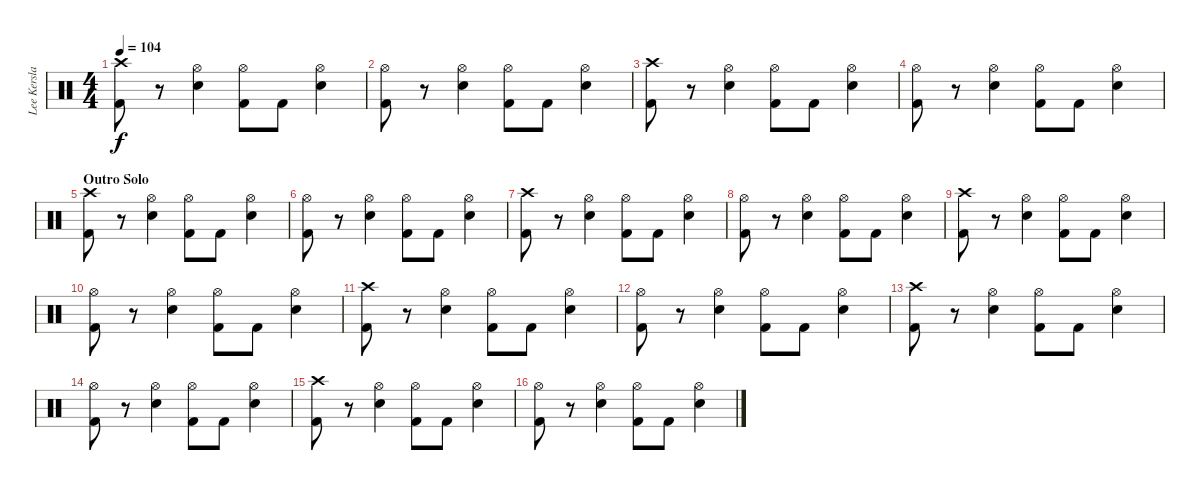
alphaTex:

\track ("Lee Kerslake" "Lee Kersla") {instrument percussion}
\staff {score}
\articulation defaults
\ts (4 4)
\tempo 104
\clef neutral
\ks c
("Crash high (hit)" "Kick (hit) 2").8{dy f} r.8 ("Hi-Hat (open)" "Electric Snare (hit)").4 ("Hi-Hat (open)" "Kick (hit) 2").8 "Kick (hit) 2".8 ("Hi-Hat (open)" "Electric Snare (hit)").4 |
("Hi-Hat (open)" "Kick (hit) 2").8 r.8 ("Hi-Hat (open)" "Electric Snare (hit)").4 ("Hi-Hat (open)" "Kick (hit) 2").8 "Kick (hit) 2".8 ("Hi-Hat (open)" "Electric Snare (hit)").4 |
("Crash high (hit)" "Kick (hit) 2").8 r.8 ("Hi-Hat (open)" "Electric Snare (hit)").4 ("Hi-Hat (open)" "Kick (hit) 2").8 "Kick (hit) 2".8 ("Hi-Hat (open)" "Electric Snare (hit)").4 |
("Hi-Hat (open)" "Kick (hit) 2").8 r.8 ("Hi-Hat (open)" "Electric Snare (hit)").4 ("Hi-Hat (open)" "Kick (hit) 2").8 "Kick (hit) 2".8 ("Hi-Hat (open)" "Electric Snare (hit)").4 |
\section ("" "Outro Solo")
("Crash high (hit)" "Kick (hit) 2").8 r.8 ("Hi-Hat (open)" "Electric Snare (hit)").4 ("Hi-Hat (open)" "Kick (hit) 2").8 "Kick (hit) 2".8 ("Hi-Hat (open)" "Electric Snare (hit)").4 |
("Hi-Hat (open)" "Kick (hit) 2").8 r.8 ("Hi-Hat (open)" "Electric Snare (hit)").4 ("Hi-Hat (open)" "Kick (hit) 2").8 "Kick (hit) 2".8 ("Hi-Hat (open)" "Electric Snare (hit)").4 |
("Crash high (hit)" "Kick (hit) 2").8 r.8 ("Hi-Hat (open)" "Electric Snare (hit)").4 ("Hi-Hat (open)" "Kick (hit) 2").8 "Kick (hit) 2".8 ("Hi-Hat (open)" "Electric Snare (hit)").4 |
("Hi-Hat (open)" "Kick (hit) 2").8 r.8 ("Hi-Hat (open)" "Electric Snare (hit)").4 ("Hi-Hat (open)" "Kick (hit) 2").8 "Kick (hit) 2".8 ("Hi-Hat (open)" "Electric Snare (hit)").4 |
("Crash high (hit)" "Kick (hit) 2").8 r.8 ("Hi-Hat (open)" "Electric Snare (hit)").4 ("Hi-Hat (open)" "Kick (hit) 2").8 "Kick (hit) 2".8 ("Hi-Hat (open)" "Electric Snare (hit)").4 |
("Hi-Hat (open)" "Kick (hit) 2").8 r.8 ("Hi-Hat (open)" "Electric Snare (hit)").4 ("Hi-Hat (open)" "Kick (hit) 2").8 "Kick (hit) 2".8 ("Hi-Hat (open)" "Electric Snare (hit)").4 |
("Crash high (hit)" "Kick (hit) 2").8 r.8 ("Hi-Hat (open)" "Electric Snare (hit)").4 ("Hi-Hat (open)" "Kick (hit) 2").8 "Kick (hit) 2".8 ("Hi-Hat (open)" "Electric Snare (hit)").4 |
("Hi-Hat (open)" "Kick (hit) 2").8 r.8 ("Hi-Hat (open)" "Electric Snare (hit)").4 ("Hi-Hat (open)" "Kick (hit) 2").8 "Kick (hit) 2".8 ("Hi-Hat (open)" "Electric Snare (hit)").4 |
("Crash high (hit)" "Kick (hit) 2").8 r.8 ("Hi-Hat (open)" "Electric Snare (hit)").4 ("Hi-Hat (open)" "Kick (hit) 2").8 "Kick (hit) 2".8 ("Hi-Hat (open)" "Electric Snare (hit)").4 |
("Hi-Hat (open)" "Kick (hit) 2").8 r.8 ("Hi-Hat (open)" "Electric Snare (hit)").4 ("Hi-Hat (open)" "Kick (hit) 2").8 "Kick (hit) 2".8 ("Hi-Hat (open)" "Electric Snare (hit)").4 |
("Crash high (hit)" "Kick (hit) 2").8 r.8 ("Hi-Hat (open)" "Electric Snare (hit)").4 ("Hi-Hat (open)" "Kick (hit) 2").8 "Kick (hit) 2".8 ("Hi-Hat (open)" "Electric Snare (hit)").4 |
("Hi-Hat (open)" "Kick (hit) 2").8 r.8 ("Hi-Hat (open)" "Electric Snare (hit)").4 ("Hi-Hat (open)" "Kick (hit) 2").8 "Kick (hit) 2".8 ("Hi-Hat (open)" "Electric Snare (hit)").4
